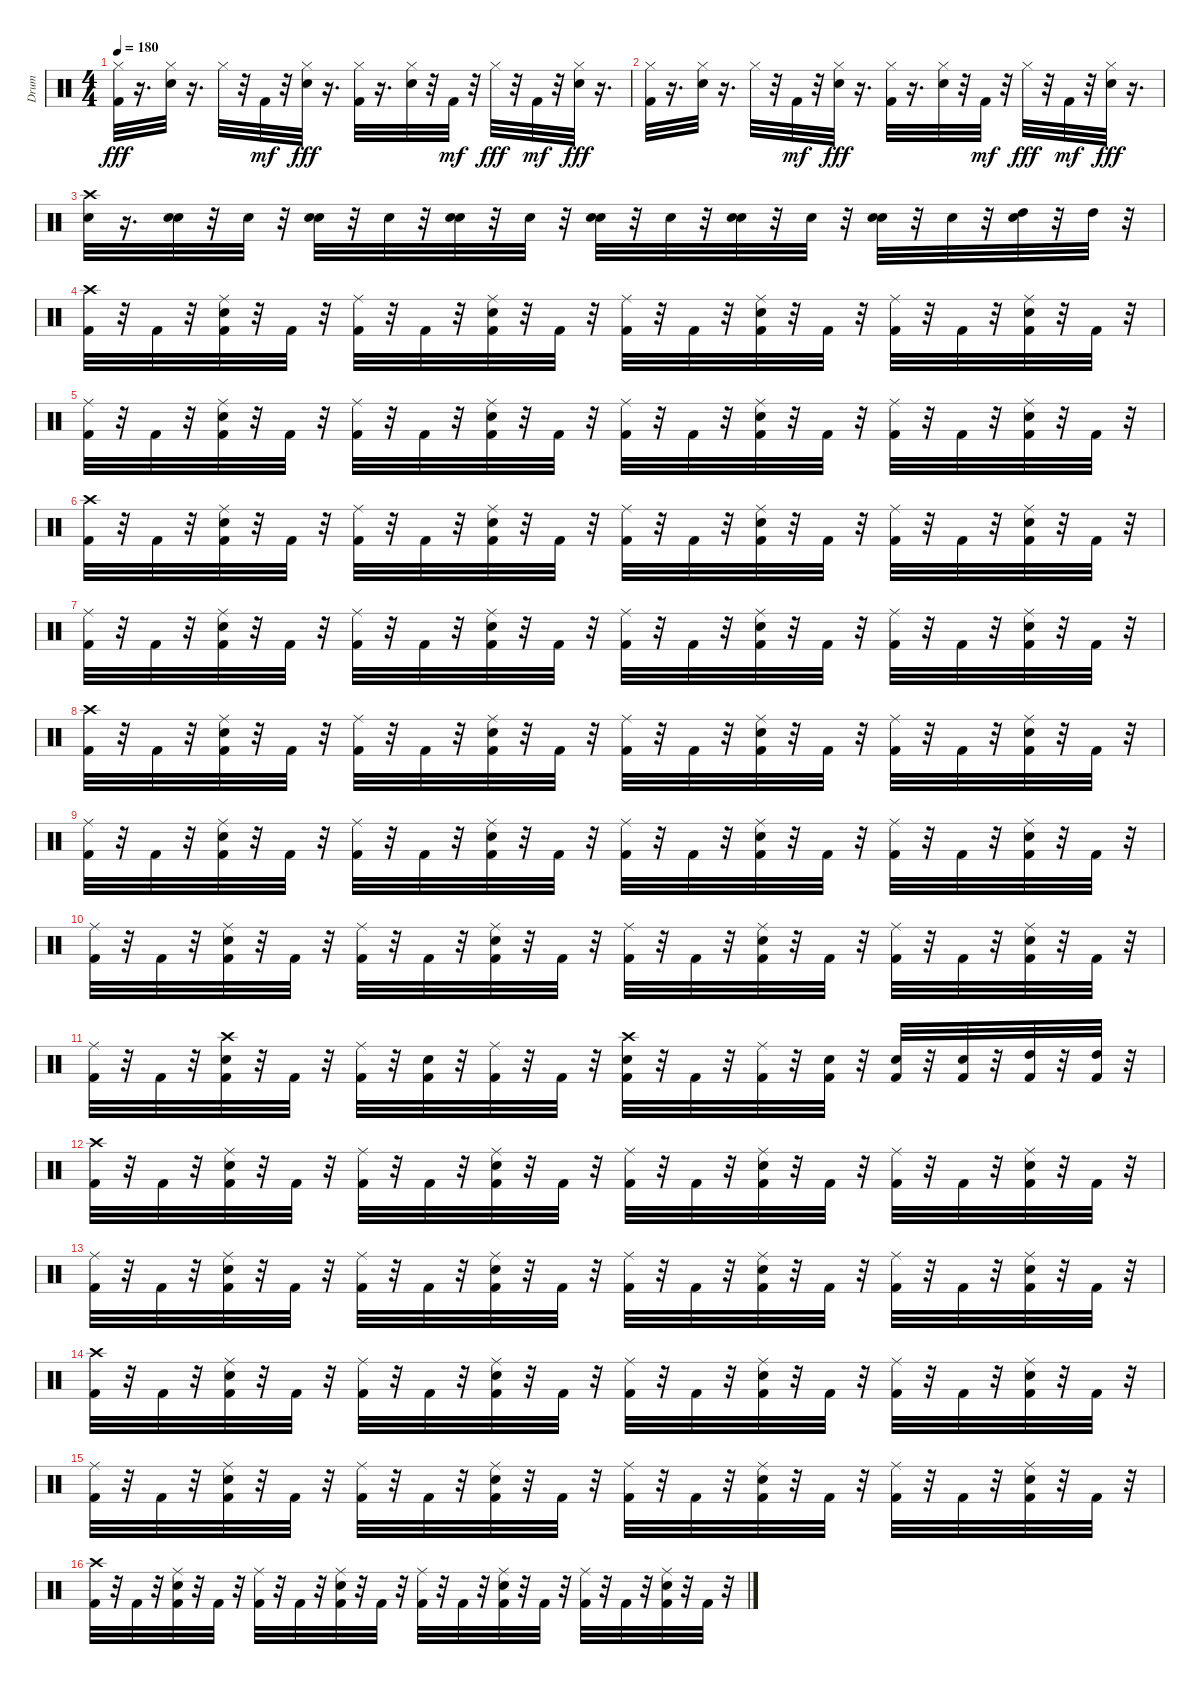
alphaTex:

\track ("Drum" "Drum") {instrument percussion}
\staff {score}
\articulation defaults
\ts (4 4)
\tempo 180
\clef neutral
\ks c
("Kick (hit) 2" "Hi-Hat (closed)").32{dy fff} r.16{d} ("Hi-Hat (closed)" "Snare (hit) 2").32 r.16{d} "Hi-Hat (closed)".32 r.32 "Kick (hit) 2".32{dy mf} r.32 ("Hi-Hat (closed)" "Snare (hit) 2").32{dy fff} r.16{d} ("Kick (hit) 2" "Hi-Hat (closed)").32 r.16{d} ("Hi-Hat (closed)" "Snare (hit) 2").32 r.32 "Kick (hit) 2".32{dy mf} r.32 "Hi-Hat (closed)".32{dy fff} r.32 "Kick (hit) 2".32{dy mf} r.32 ("Hi-Hat (closed)" "Snare (hit) 2").32{dy fff} r.16{d} |
("Kick (hit) 2" "Hi-Hat (closed)").32 r.16{d} ("Hi-Hat (closed)" "Snare (hit) 2").32 r.16{d} "Hi-Hat (closed)".32 r.32 "Kick (hit) 2".32{dy mf} r.32 ("Hi-Hat (closed)" "Snare (hit) 2").32{dy fff} r.16{d} ("Kick (hit) 2" "Hi-Hat (closed)").32 r.16{d} ("Hi-Hat (closed)" "Snare (hit) 2").32 r.32 "Kick (hit) 2".32{dy mf} r.32 "Hi-Hat (closed)".32{dy fff} r.32 "Kick (hit) 2".32{dy mf} r.32 ("Hi-Hat (closed)" "Snare (hit) 2").32{dy fff} r.16{d} |
("Snare (hit) 2" "Crash high (hit)").32 r.16{d} ("Snare (hit) 2" "Electric Snare (hit)").32 r.32 "Electric Snare (hit)".32 r.32 ("Snare (hit) 2" "Electric Snare (hit)").32 r.32 "Electric Snare (hit)".32 r.32 ("Snare (hit) 2" "Electric Snare (hit)").32 r.32 "Electric Snare (hit)".32 r.32 ("Snare (hit) 2" "Electric Snare (hit)").32 r.32 "Electric Snare (hit)".32 r.32 ("Snare (hit) 2" "Electric Snare (hit)").32 r.32 "Electric Snare (hit)".32 r.32 ("Snare (hit) 2" "Electric Snare (hit)").32 r.32 "Electric Snare (hit)".32 r.32 ("Snare (hit) 2" "High Tom (hit)").32 r.32 "High Tom (hit)".32 r.32 |
("Kick (hit) 2" "Crash high (hit)").32 r.32 "Kick (hit) 2".32 r.32 ("Kick (hit) 2" "Snare (hit) 2" "Ride (middle)").32 r.32 "Kick (hit) 2".32 r.32 ("Kick (hit) 2" "Ride (middle)").32 r.32 "Kick (hit) 2".32 r.32 ("Kick (hit) 2" "Snare (hit) 2" "Ride (middle)").32 r.32 "Kick (hit) 2".32 r.32 ("Kick (hit) 2" "Ride (middle)").32 r.32 "Kick (hit) 2".32 r.32 ("Kick (hit) 2" "Snare (hit) 2" "Ride (middle)").32 r.32 "Kick (hit) 2".32 r.32 ("Kick (hit) 2" "Ride (middle)").32 r.32 "Kick (hit) 2".32 r.32 ("Kick (hit) 2" "Snare (hit) 2" "Ride (middle)").32 r.32 "Kick (hit) 2".32 r.32 |
("Ride (middle)" "Kick (hit) 2").32 r.32 "Kick (hit) 2".32 r.32 ("Ride (middle)" "Kick (hit) 2" "Snare (hit) 2").32 r.32 "Kick (hit) 2".32 r.32 ("Ride (middle)" "Kick (hit) 2").32 r.32 "Kick (hit) 2".32 r.32 ("Ride (middle)" "Kick (hit) 2" "Snare (hit) 2").32 r.32 "Kick (hit) 2".32 r.32 ("Ride (middle)" "Kick (hit) 2").32 r.32 "Kick (hit) 2".32 r.32 ("Ride (middle)" "Kick (hit) 2" "Snare (hit) 2").32 r.32 "Kick (hit) 2".32 r.32 ("Ride (middle)" "Kick (hit) 2").32 r.32 "Kick (hit) 2".32 r.32 ("Ride (middle)" "Kick (hit) 2" "Snare (hit) 2").32 r.32 "Kick (hit) 2".32 r.32 |
("Kick (hit) 2" "Crash high (hit)").32 r.32 "Kick (hit) 2".32 r.32 ("Kick (hit) 2" "Snare (hit) 2" "Ride (middle)").32 r.32 "Kick (hit) 2".32 r.32 ("Kick (hit) 2" "Ride (middle)").32 r.32 "Kick (hit) 2".32 r.32 ("Kick (hit) 2" "Snare (hit) 2" "Ride (middle)").32 r.32 "Kick (hit) 2".32 r.32 ("Kick (hit) 2" "Ride (middle)").32 r.32 "Kick (hit) 2".32 r.32 ("Kick (hit) 2" "Snare (hit) 2" "Ride (middle)").32 r.32 "Kick (hit) 2".32 r.32 ("Kick (hit) 2" "Ride (middle)").32 r.32 "Kick (hit) 2".32 r.32 ("Kick (hit) 2" "Snare (hit) 2" "Ride (middle)").32 r.32 "Kick (hit) 2".32 r.32 |
("Ride (middle)" "Kick (hit) 2").32 r.32 "Kick (hit) 2".32 r.32 ("Ride (middle)" "Kick (hit) 2" "Snare (hit) 2").32 r.32 "Kick (hit) 2".32 r.32 ("Ride (middle)" "Kick (hit) 2").32 r.32 "Kick (hit) 2".32 r.32 ("Ride (middle)" "Kick (hit) 2" "Snare (hit) 2").32 r.32 "Kick (hit) 2".32 r.32 ("Ride (middle)" "Kick (hit) 2").32 r.32 "Kick (hit) 2".32 r.32 ("Ride (middle)" "Kick (hit) 2" "Snare (hit) 2").32 r.32 "Kick (hit) 2".32 r.32 ("Ride (middle)" "Kick (hit) 2").32 r.32 "Kick (hit) 2".32 r.32 ("Ride (middle)" "Kick (hit) 2" "Snare (hit) 2").32 r.32 "Kick (hit) 2".32 r.32 |
("Kick (hit) 2" "Crash high (hit)").32 r.32 "Kick (hit) 2".32 r.32 ("Kick (hit) 2" "Snare (hit) 2" "Ride (middle)").32 r.32 "Kick (hit) 2".32 r.32 ("Kick (hit) 2" "Ride (middle)").32 r.32 "Kick (hit) 2".32 r.32 ("Kick (hit) 2" "Snare (hit) 2" "Ride (middle)").32 r.32 "Kick (hit) 2".32 r.32 ("Kick (hit) 2" "Ride (middle)").32 r.32 "Kick (hit) 2".32 r.32 ("Kick (hit) 2" "Snare (hit) 2" "Ride (middle)").32 r.32 "Kick (hit) 2".32 r.32 ("Kick (hit) 2" "Ride (middle)").32 r.32 "Kick (hit) 2".32 r.32 ("Kick (hit) 2" "Snare (hit) 2" "Ride (middle)").32 r.32 "Kick (hit) 2".32 r.32 |
("Ride (middle)" "Kick (hit) 2").32 r.32 "Kick (hit) 2".32 r.32 ("Ride (middle)" "Kick (hit) 2" "Snare (hit) 2").32 r.32 "Kick (hit) 2".32 r.32 ("Ride (middle)" "Kick (hit) 2").32 r.32 "Kick (hit) 2".32 r.32 ("Ride (middle)" "Kick (hit) 2" "Snare (hit) 2").32 r.32 "Kick (hit) 2".32 r.32 ("Ride (middle)" "Kick (hit) 2").32 r.32 "Kick (hit) 2".32 r.32 ("Ride (middle)" "Kick (hit) 2" "Snare (hit) 2").32 r.32 "Kick (hit) 2".32 r.32 ("Ride (middle)" "Kick (hit) 2").32 r.32 "Kick (hit) 2".32 r.32 ("Ride (middle)" "Kick (hit) 2" "Snare (hit) 2").32 r.32 "Kick (hit) 2".32 r.32 |
("Ride (middle)" "Kick (hit) 2").32 r.32 "Kick (hit) 2".32 r.32 ("Ride (middle)" "Kick (hit) 2" "Snare (hit) 2").32 r.32 "Kick (hit) 2".32 r.32 ("Ride (middle)" "Kick (hit) 2").32 r.32 "Kick (hit) 2".32 r.32 ("Ride (middle)" "Kick (hit) 2" "Snare (hit) 2").32 r.32 "Kick (hit) 2".32 r.32 ("Ride (middle)" "Kick (hit) 2").32 r.32 "Kick (hit) 2".32 r.32 ("Ride (middle)" "Kick (hit) 2" "Snare (hit) 2").32 r.32 "Kick (hit) 2".32 r.32 ("Ride (middle)" "Kick (hit) 2").32 r.32 "Kick (hit) 2".32 r.32 ("Ride (middle)" "Kick (hit) 2" "Snare (hit) 2").32 r.32 "Kick (hit) 2".32 r.32 |
("Ride (middle)" "Kick (hit) 2").32 r.32 "Kick (hit) 2".32 r.32 ("Snare (hit) 2" "Crash high (hit)" "Kick (hit) 2").32 r.32 "Kick (hit) 2".32 r.32 ("Ride (middle)" "Kick (hit) 2").32 r.32 ("Snare (hit) 2" "Kick (hit) 2").32 r.32 ("Ride (middle)" "Kick (hit) 2").32 r.32 "Kick (hit) 2".32 r.32 ("Snare (hit) 2" "Crash high (hit)" "Kick (hit) 2").32 r.32 "Kick (hit) 2".32 r.32 ("Ride (middle)" "Kick (hit) 2").32 r.32 ("Snare (hit) 2" "Kick (hit) 2").32 r.32 ("Snare (hit) 2" "Kick (hit) 2").32 r.32 ("Snare (hit) 2" "Kick (hit) 2").32 r.32 ("High Tom (hit)" "Kick (hit) 2").32 r.32 ("High Tom (hit)" "Kick (hit) 2").32 r.32 |
("Kick (hit) 2" "Crash high (hit)").32 r.32 "Kick (hit) 2".32 r.32 ("Kick (hit) 2" "Snare (hit) 2" "Ride (middle)").32 r.32 "Kick (hit) 2".32 r.32 ("Kick (hit) 2" "Ride (middle)").32 r.32 "Kick (hit) 2".32 r.32 ("Kick (hit) 2" "Snare (hit) 2" "Ride (middle)").32 r.32 "Kick (hit) 2".32 r.32 ("Kick (hit) 2" "Ride (middle)").32 r.32 "Kick (hit) 2".32 r.32 ("Kick (hit) 2" "Snare (hit) 2" "Ride (middle)").32 r.32 "Kick (hit) 2".32 r.32 ("Kick (hit) 2" "Ride (middle)").32 r.32 "Kick (hit) 2".32 r.32 ("Kick (hit) 2" "Snare (hit) 2" "Ride (middle)").32 r.32 "Kick (hit) 2".32 r.32 |
("Ride (middle)" "Kick (hit) 2").32 r.32 "Kick (hit) 2".32 r.32 ("Ride (middle)" "Kick (hit) 2" "Snare (hit) 2").32 r.32 "Kick (hit) 2".32 r.32 ("Ride (middle)" "Kick (hit) 2").32 r.32 "Kick (hit) 2".32 r.32 ("Ride (middle)" "Kick (hit) 2" "Snare (hit) 2").32 r.32 "Kick (hit) 2".32 r.32 ("Ride (middle)" "Kick (hit) 2").32 r.32 "Kick (hit) 2".32 r.32 ("Ride (middle)" "Kick (hit) 2" "Snare (hit) 2").32 r.32 "Kick (hit) 2".32 r.32 ("Ride (middle)" "Kick (hit) 2").32 r.32 "Kick (hit) 2".32 r.32 ("Ride (middle)" "Kick (hit) 2" "Snare (hit) 2").32 r.32 "Kick (hit) 2".32 r.32 |
("Kick (hit) 2" "Crash high (hit)").32 r.32 "Kick (hit) 2".32 r.32 ("Kick (hit) 2" "Snare (hit) 2" "Ride (middle)").32 r.32 "Kick (hit) 2".32 r.32 ("Kick (hit) 2" "Ride (middle)").32 r.32 "Kick (hit) 2".32 r.32 ("Kick (hit) 2" "Snare (hit) 2" "Ride (middle)").32 r.32 "Kick (hit) 2".32 r.32 ("Kick (hit) 2" "Ride (middle)").32 r.32 "Kick (hit) 2".32 r.32 ("Kick (hit) 2" "Snare (hit) 2" "Ride (middle)").32 r.32 "Kick (hit) 2".32 r.32 ("Kick (hit) 2" "Ride (middle)").32 r.32 "Kick (hit) 2".32 r.32 ("Kick (hit) 2" "Snare (hit) 2" "Ride (middle)").32 r.32 "Kick (hit) 2".32 r.32 |
("Ride (middle)" "Kick (hit) 2").32 r.32 "Kick (hit) 2".32 r.32 ("Ride (middle)" "Kick (hit) 2" "Snare (hit) 2").32 r.32 "Kick (hit) 2".32 r.32 ("Ride (middle)" "Kick (hit) 2").32 r.32 "Kick (hit) 2".32 r.32 ("Ride (middle)" "Kick (hit) 2" "Snare (hit) 2").32 r.32 "Kick (hit) 2".32 r.32 ("Ride (middle)" "Kick (hit) 2").32 r.32 "Kick (hit) 2".32 r.32 ("Ride (middle)" "Kick (hit) 2" "Snare (hit) 2").32 r.32 "Kick (hit) 2".32 r.32 ("Ride (middle)" "Kick (hit) 2").32 r.32 "Kick (hit) 2".32 r.32 ("Ride (middle)" "Kick (hit) 2" "Snare (hit) 2").32 r.32 "Kick (hit) 2".32 r.32 |
("Kick (hit) 2" "Crash high (hit)").32 r.32 "Kick (hit) 2".32 r.32 ("Kick (hit) 2" "Snare (hit) 2" "Ride (middle)").32 r.32 "Kick (hit) 2".32 r.32 ("Kick (hit) 2" "Ride (middle)").32 r.32 "Kick (hit) 2".32 r.32 ("Kick (hit) 2" "Snare (hit) 2" "Ride (middle)").32 r.32 "Kick (hit) 2".32 r.32 ("Kick (hit) 2" "Ride (middle)").32 r.32 "Kick (hit) 2".32 r.32 ("Kick (hit) 2" "Snare (hit) 2" "Ride (middle)").32 r.32 "Kick (hit) 2".32 r.32 ("Kick (hit) 2" "Ride (middle)").32 r.32 "Kick (hit) 2".32 r.32 ("Kick (hit) 2" "Snare (hit) 2" "Ride (middle)").32 r.32 "Kick (hit) 2".32 r.32
